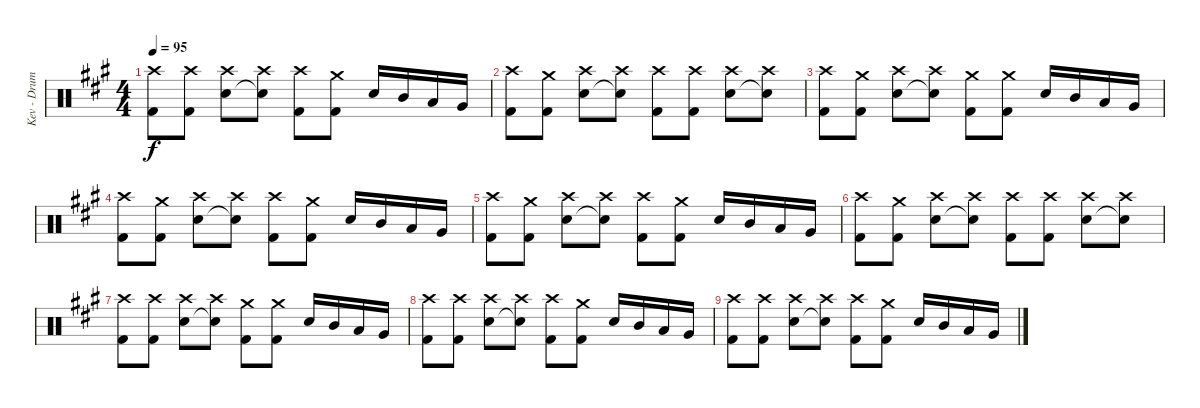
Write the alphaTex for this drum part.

\track ("Kev - Drums" "Kev - Drum") {instrument percussion}
\staff {score}
\articulation defaults
\ts (4 4)
\tempo 95
\clef neutral
\ks a
("Crash high (hit)" "Kick (hit) 2").8{dy f} ("Crash high (hit)" "Kick (hit) 2").8 ("Crash high (hit)" "Snare (hit) 2").8 ("Crash high (hit)" "Snare (hit)"{t}).8 ("Crash high (hit)" "Kick (hit) 2").8 ("Crash medium (hit)" "Kick (hit) 2").8 "Snare (hit) 2".16 "Mid Tom (hit)".16 "Low Tom (hit)".16 "Very Low Tom (hit)".16 |
("Crash high (hit)" "Kick (hit) 2").8 ("Crash medium (hit)" "Kick (hit) 2").8 ("Crash high (hit)" "Snare (hit) 2").8 ("Crash high (hit)" "Snare (hit)"{t}).8 ("Crash high (hit)" "Kick (hit) 2").8 ("Crash high (hit)" "Kick (hit) 2").8 ("Crash high (hit)" "Snare (hit) 2").8 ("Crash high (hit)" "Snare (hit)"{t}).8 |
("Crash high (hit)" "Kick (hit) 2").8 ("Crash medium (hit)" "Kick (hit) 2").8 ("Crash high (hit)" "Snare (hit) 2").8 ("Crash high (hit)" "Snare (hit)"{t}).8 ("Crash medium (hit)" "Kick (hit) 2").8 ("Crash medium (hit)" "Kick (hit) 2").8 "Snare (hit) 2".16 "Mid Tom (hit)".16 "Low Tom (hit)".16 "Very Low Tom (hit)".16 |
("Crash high (hit)" "Kick (hit) 2").8 ("Crash medium (hit)" "Kick (hit) 2").8 ("Crash high (hit)" "Snare (hit) 2").8 ("Crash high (hit)" "Snare (hit)"{t}).8 ("Crash high (hit)" "Kick (hit) 2").8 ("Crash medium (hit)" "Kick (hit) 2").8 "Snare (hit) 2".16 "Mid Tom (hit)".16 "Low Tom (hit)".16 "Very Low Tom (hit)".16 |
("Crash high (hit)" "Kick (hit) 2").8 ("Crash medium (hit)" "Kick (hit) 2").8 ("Crash high (hit)" "Snare (hit) 2").8 ("Crash high (hit)" "Snare (hit)"{t}).8 ("Crash high (hit)" "Kick (hit) 2").8 ("Crash medium (hit)" "Kick (hit) 2").8 "Snare (hit) 2".16 "Mid Tom (hit)".16 "Low Tom (hit)".16 "Very Low Tom (hit)".16 |
("Crash high (hit)" "Kick (hit) 2").8 ("Crash medium (hit)" "Kick (hit) 2").8 ("Crash high (hit)" "Snare (hit) 2").8 ("Crash high (hit)" "Snare (hit)"{t}).8 ("Crash high (hit)" "Kick (hit) 2").8 ("Crash high (hit)" "Kick (hit) 2").8 ("Crash high (hit)" "Snare (hit) 2").8 ("Crash high (hit)" "Snare (hit)"{t}).8 |
("Crash high (hit)" "Kick (hit) 2").8 ("Crash high (hit)" "Kick (hit) 2").8 ("Crash high (hit)" "Snare (hit) 2").8 ("Crash high (hit)" "Snare (hit)"{t}).8 ("Crash medium (hit)" "Kick (hit) 2").8 ("Crash medium (hit)" "Kick (hit) 2").8 "Snare (hit) 2".16 "Mid Tom (hit)".16 "Low Tom (hit)".16 "Very Low Tom (hit)".16 |
("Crash high (hit)" "Kick (hit) 2").8 ("Crash high (hit)" "Kick (hit) 2").8 ("Crash high (hit)" "Snare (hit) 2").8 ("Crash high (hit)" "Snare (hit)"{t}).8 ("Crash high (hit)" "Kick (hit) 2").8 ("Crash medium (hit)" "Kick (hit) 2").8 "Snare (hit) 2".16 "Mid Tom (hit)".16 "Low Tom (hit)".16 "Very Low Tom (hit)".16 |
("Crash high (hit)" "Kick (hit) 2").8 ("Crash high (hit)" "Kick (hit) 2").8 ("Crash high (hit)" "Snare (hit) 2").8 ("Crash high (hit)" "Snare (hit)"{t}).8 ("Crash high (hit)" "Kick (hit) 2").8 ("Crash medium (hit)" "Kick (hit) 2").8 "Snare (hit) 2".16 "Mid Tom (hit)".16 "Low Tom (hit)".16 "Very Low Tom (hit)".16
